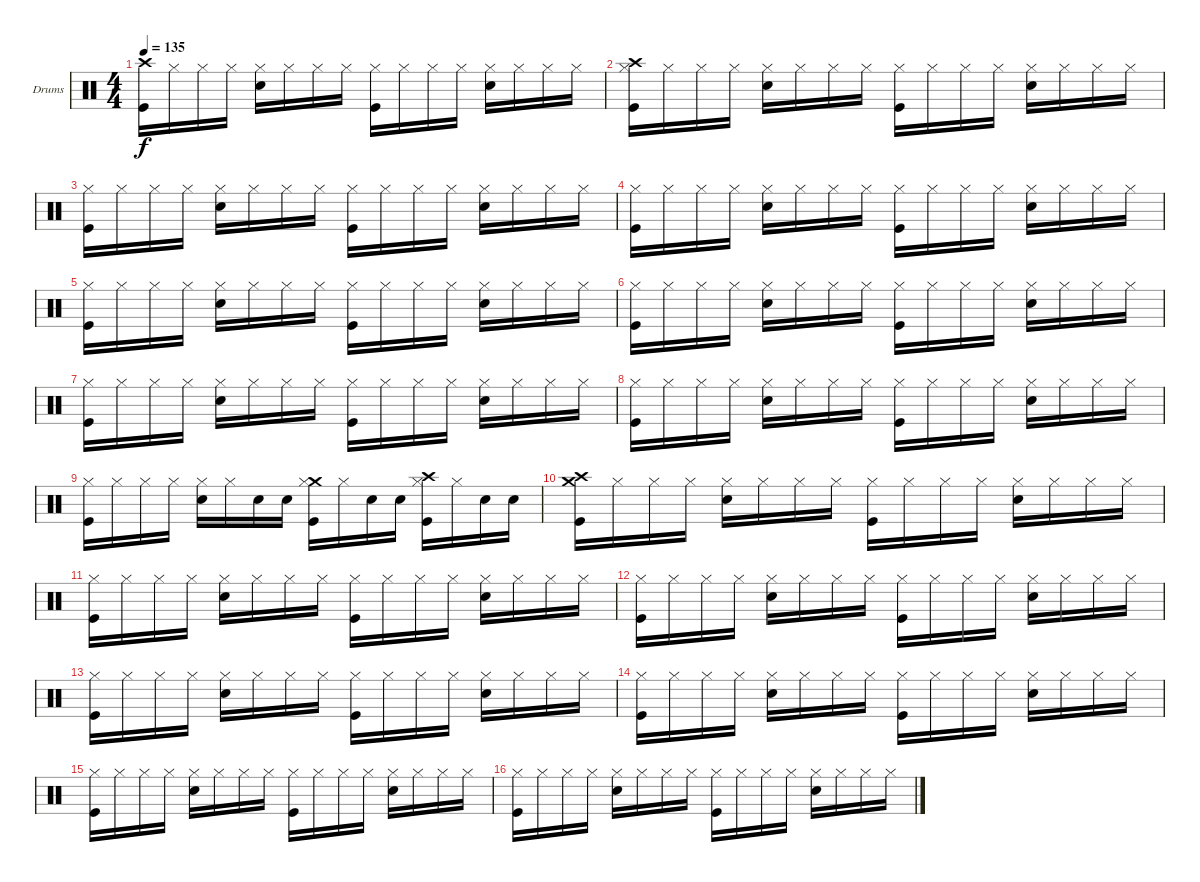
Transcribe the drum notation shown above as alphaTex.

\bracketExtendMode groupsimilarinstruments
\firstSystemTrackNameOrientation horizontal
\otherSystemsTrackNameOrientation horizontal
\track ("Ударные" "Drums") {instrument percussion}
\staff {score}
\articulation defaults
\ts (4 4)
\tempo 135
\clef neutral
\ks c
("Crash high (hit)" "Kick (hit)").16{dy f} "Hi-Hat (closed)".16 "Hi-Hat (closed)".16 "Hi-Hat (closed)".16 ("Hi-Hat (closed)" "Snare (hit) 2").16 "Hi-Hat (closed)".16 "Hi-Hat (closed)".16 "Hi-Hat (closed)".16 ("Hi-Hat (closed)" "Kick (hit)").16 "Hi-Hat (closed)".16 "Hi-Hat (closed)".16 "Hi-Hat (closed)".16 ("Hi-Hat (closed)" "Snare (hit) 2").16 "Hi-Hat (closed)".16 "Hi-Hat (closed)".16 "Hi-Hat (closed)".16 |
("Crash high (hit)" "Hi-Hat (closed)" "Kick (hit)").16 "Hi-Hat (closed)".16 "Hi-Hat (closed)".16 "Hi-Hat (closed)".16 ("Hi-Hat (closed)" "Snare (hit) 2").16 "Hi-Hat (closed)".16 "Hi-Hat (closed)".16 "Hi-Hat (closed)".16 ("Hi-Hat (closed)" "Kick (hit)").16 "Hi-Hat (closed)".16 "Hi-Hat (closed)".16 "Hi-Hat (closed)".16 ("Hi-Hat (closed)" "Snare (hit) 2").16 "Hi-Hat (closed)".16 "Hi-Hat (closed)".16 "Hi-Hat (closed)".16 |
("Hi-Hat (closed)" "Kick (hit)").16 "Hi-Hat (closed)".16 "Hi-Hat (closed)".16 "Hi-Hat (closed)".16 ("Hi-Hat (closed)" "Snare (hit) 2").16 "Hi-Hat (closed)".16 "Hi-Hat (closed)".16 "Hi-Hat (closed)".16 ("Hi-Hat (closed)" "Kick (hit)").16 "Hi-Hat (closed)".16 "Hi-Hat (closed)".16 "Hi-Hat (closed)".16 ("Hi-Hat (closed)" "Snare (hit) 2").16 "Hi-Hat (closed)".16 "Hi-Hat (closed)".16 "Hi-Hat (closed)".16 |
("Hi-Hat (closed)" "Kick (hit)").16 "Hi-Hat (closed)".16 "Hi-Hat (closed)".16 "Hi-Hat (closed)".16 ("Hi-Hat (closed)" "Snare (hit) 2").16 "Hi-Hat (closed)".16 "Hi-Hat (closed)".16 "Hi-Hat (closed)".16 ("Hi-Hat (closed)" "Kick (hit)").16 "Hi-Hat (closed)".16 "Hi-Hat (closed)".16 "Hi-Hat (closed)".16 ("Hi-Hat (closed)" "Snare (hit) 2").16 "Hi-Hat (closed)".16 "Hi-Hat (closed)".16 "Hi-Hat (closed)".16 |
("Hi-Hat (closed)" "Kick (hit)").16 "Hi-Hat (closed)".16 "Hi-Hat (closed)".16 "Hi-Hat (closed)".16 ("Hi-Hat (closed)" "Snare (hit) 2").16 "Hi-Hat (closed)".16 "Hi-Hat (closed)".16 "Hi-Hat (closed)".16 ("Hi-Hat (closed)" "Kick (hit)").16 "Hi-Hat (closed)".16 "Hi-Hat (closed)".16 "Hi-Hat (closed)".16 ("Hi-Hat (closed)" "Snare (hit) 2").16 "Hi-Hat (closed)".16 "Hi-Hat (closed)".16 "Hi-Hat (closed)".16 |
("Hi-Hat (closed)" "Kick (hit)").16 "Hi-Hat (closed)".16 "Hi-Hat (closed)".16 "Hi-Hat (closed)".16 ("Hi-Hat (closed)" "Snare (hit) 2").16 "Hi-Hat (closed)".16 "Hi-Hat (closed)".16 "Hi-Hat (closed)".16 ("Hi-Hat (closed)" "Kick (hit)").16 "Hi-Hat (closed)".16 "Hi-Hat (closed)".16 "Hi-Hat (closed)".16 ("Hi-Hat (closed)" "Snare (hit) 2").16 "Hi-Hat (closed)".16 "Hi-Hat (closed)".16 "Hi-Hat (closed)".16 |
("Hi-Hat (closed)" "Kick (hit)").16 "Hi-Hat (closed)".16 "Hi-Hat (closed)".16 "Hi-Hat (closed)".16 ("Hi-Hat (closed)" "Snare (hit) 2").16 "Hi-Hat (closed)".16 "Hi-Hat (closed)".16 "Hi-Hat (closed)".16 ("Hi-Hat (closed)" "Kick (hit)").16 "Hi-Hat (closed)".16 "Hi-Hat (closed)".16 "Hi-Hat (closed)".16 ("Hi-Hat (closed)" "Snare (hit) 2").16 "Hi-Hat (closed)".16 "Hi-Hat (closed)".16 "Hi-Hat (closed)".16 |
("Hi-Hat (closed)" "Kick (hit)").16 "Hi-Hat (closed)".16 "Hi-Hat (closed)".16 "Hi-Hat (closed)".16 ("Hi-Hat (closed)" "Snare (hit) 2").16 "Hi-Hat (closed)".16 "Hi-Hat (closed)".16 "Hi-Hat (closed)".16 ("Hi-Hat (closed)" "Kick (hit)").16 "Hi-Hat (closed)".16 "Hi-Hat (closed)".16 "Hi-Hat (closed)".16 ("Hi-Hat (closed)" "Snare (hit) 2").16 "Hi-Hat (closed)".16 "Hi-Hat (closed)".16 "Hi-Hat (closed)".16 |
("Hi-Hat (closed)" "Kick (hit)").16 "Hi-Hat (closed)".16 "Hi-Hat (closed)".16 "Hi-Hat (closed)".16 ("Hi-Hat (closed)" "Snare (hit) 2").16 "Hi-Hat (closed)".16 "Snare (hit) 2".16 "Snare (hit) 2".16 ("Crash medium (hit)" "Hi-Hat (closed)" "Kick (hit)").16 "Hi-Hat (closed)".16 "Snare (hit) 2".16 "Snare (hit) 2".16 ("Crash high (hit)" "Hi-Hat (closed)" "Kick (hit)").16 "Hi-Hat (closed)".16 "Snare (hit) 2".16 "Snare (hit) 2".16 |
("Crash high (hit)" "Crash medium (hit)" "Kick (hit)").16 "Hi-Hat (closed)".16 "Hi-Hat (closed)".16 "Hi-Hat (closed)".16 ("Hi-Hat (closed)" "Snare (hit) 2").16 "Hi-Hat (closed)".16 "Hi-Hat (closed)".16 "Hi-Hat (closed)".16 ("Hi-Hat (closed)" "Kick (hit)").16 "Hi-Hat (closed)".16 "Hi-Hat (closed)".16 "Hi-Hat (closed)".16 ("Hi-Hat (closed)" "Snare (hit) 2").16 "Hi-Hat (closed)".16 "Hi-Hat (closed)".16 "Hi-Hat (closed)".16 |
("Hi-Hat (closed)" "Kick (hit)").16 "Hi-Hat (closed)".16 "Hi-Hat (closed)".16 "Hi-Hat (closed)".16 ("Hi-Hat (closed)" "Snare (hit) 2").16 "Hi-Hat (closed)".16 "Hi-Hat (closed)".16 "Hi-Hat (closed)".16 ("Hi-Hat (closed)" "Kick (hit)").16 "Hi-Hat (closed)".16 "Hi-Hat (closed)".16 "Hi-Hat (closed)".16 ("Hi-Hat (closed)" "Snare (hit) 2").16 "Hi-Hat (closed)".16 "Hi-Hat (closed)".16 "Hi-Hat (closed)".16 |
("Hi-Hat (closed)" "Kick (hit)").16 "Hi-Hat (closed)".16 "Hi-Hat (closed)".16 "Hi-Hat (closed)".16 ("Hi-Hat (closed)" "Snare (hit) 2").16 "Hi-Hat (closed)".16 "Hi-Hat (closed)".16 "Hi-Hat (closed)".16 ("Hi-Hat (closed)" "Kick (hit)").16 "Hi-Hat (closed)".16 "Hi-Hat (closed)".16 "Hi-Hat (closed)".16 ("Hi-Hat (closed)" "Snare (hit) 2").16 "Hi-Hat (closed)".16 "Hi-Hat (closed)".16 "Hi-Hat (closed)".16 |
("Hi-Hat (closed)" "Kick (hit)").16 "Hi-Hat (closed)".16 "Hi-Hat (closed)".16 "Hi-Hat (closed)".16 ("Hi-Hat (closed)" "Snare (hit) 2").16 "Hi-Hat (closed)".16 "Hi-Hat (closed)".16 "Hi-Hat (closed)".16 ("Hi-Hat (closed)" "Kick (hit)").16 "Hi-Hat (closed)".16 "Hi-Hat (closed)".16 "Hi-Hat (closed)".16 ("Hi-Hat (closed)" "Snare (hit) 2").16 "Hi-Hat (closed)".16 "Hi-Hat (closed)".16 "Hi-Hat (closed)".16 |
("Hi-Hat (closed)" "Kick (hit)").16 "Hi-Hat (closed)".16 "Hi-Hat (closed)".16 "Hi-Hat (closed)".16 ("Hi-Hat (closed)" "Snare (hit) 2").16 "Hi-Hat (closed)".16 "Hi-Hat (closed)".16 "Hi-Hat (closed)".16 ("Hi-Hat (closed)" "Kick (hit)").16 "Hi-Hat (closed)".16 "Hi-Hat (closed)".16 "Hi-Hat (closed)".16 ("Hi-Hat (closed)" "Snare (hit) 2").16 "Hi-Hat (closed)".16 "Hi-Hat (closed)".16 "Hi-Hat (closed)".16 |
("Hi-Hat (closed)" "Kick (hit)").16 "Hi-Hat (closed)".16 "Hi-Hat (closed)".16 "Hi-Hat (closed)".16 ("Hi-Hat (closed)" "Snare (hit) 2").16 "Hi-Hat (closed)".16 "Hi-Hat (closed)".16 "Hi-Hat (closed)".16 ("Hi-Hat (closed)" "Kick (hit)").16 "Hi-Hat (closed)".16 "Hi-Hat (closed)".16 "Hi-Hat (closed)".16 ("Hi-Hat (closed)" "Snare (hit) 2").16 "Hi-Hat (closed)".16 "Hi-Hat (closed)".16 "Hi-Hat (closed)".16 |
("Hi-Hat (closed)" "Kick (hit)").16 "Hi-Hat (closed)".16 "Hi-Hat (closed)".16 "Hi-Hat (closed)".16 ("Hi-Hat (closed)" "Snare (hit) 2").16 "Hi-Hat (closed)".16 "Hi-Hat (closed)".16 "Hi-Hat (closed)".16 ("Hi-Hat (closed)" "Kick (hit)").16 "Hi-Hat (closed)".16 "Hi-Hat (closed)".16 "Hi-Hat (closed)".16 ("Hi-Hat (closed)" "Snare (hit) 2").16 "Hi-Hat (closed)".16 "Hi-Hat (closed)".16 "Hi-Hat (closed)".16
